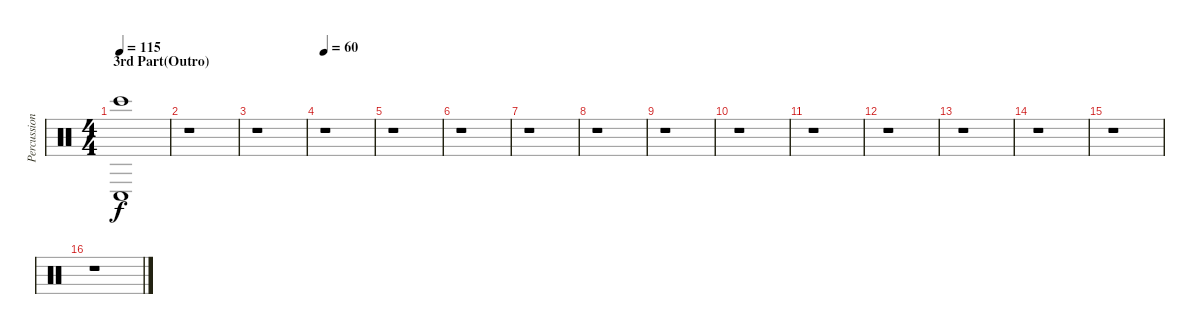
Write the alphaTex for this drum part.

\track ("Percussions" "Percussion") {instrument percussion}
\staff {score}
\articulation defaults
\ts (4 4)
\section ("" "3rd Part(Outro)")
\tempo 115
\clef neutral
\ks c
("Bongo High (hit)" "Conga low (hit)").1{dy f} |
r.1 |
r.1 |
\tempo 60
r.1 |
r.1 |
r.1 |
r.1 |
r.1 |
r.1 |
r.1 |
r.1 |
r.1 |
r.1 |
r.1 |
r.1 |
r.1
